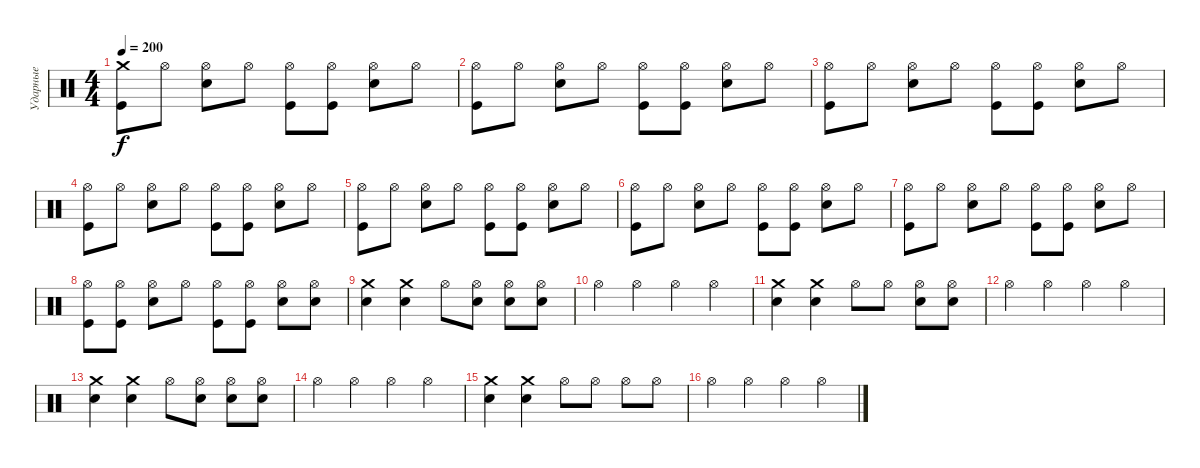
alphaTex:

\track ("Ударные" "Ударные") {instrument percussion}
\staff {score}
\articulation defaults
\ts (4 4)
\tempo 200
\clef neutral
\ks c
("Crash medium (hit)" "Kick (hit)").8{dy f} "Hi-Hat (open)".8 ("Hi-Hat (open)" "Snare (hit) 2").8 "Hi-Hat (open)".8 ("Hi-Hat (open)" "Kick (hit)").8 ("Hi-Hat (open)" "Kick (hit)").8 ("Hi-Hat (open)" "Snare (hit) 2").8 "Hi-Hat (open)".8 |
("Hi-Hat (open)" "Kick (hit)").8 "Hi-Hat (open)".8 ("Hi-Hat (open)" "Snare (hit) 2").8 "Hi-Hat (open)".8 ("Hi-Hat (open)" "Kick (hit)").8 ("Hi-Hat (open)" "Kick (hit)").8 ("Hi-Hat (open)" "Snare (hit) 2").8 "Hi-Hat (open)".8 |
("Hi-Hat (open)" "Kick (hit)").8 "Hi-Hat (open)".8 ("Hi-Hat (open)" "Snare (hit) 2").8 "Hi-Hat (open)".8 ("Hi-Hat (open)" "Kick (hit)").8 ("Hi-Hat (open)" "Kick (hit)").8 ("Hi-Hat (open)" "Snare (hit) 2").8 "Hi-Hat (open)".8 |
("Hi-Hat (open)" "Kick (hit)").8 "Hi-Hat (open)".8 ("Hi-Hat (open)" "Snare (hit) 2").8 "Hi-Hat (open)".8 ("Hi-Hat (open)" "Kick (hit)").8 ("Hi-Hat (open)" "Kick (hit)").8 ("Hi-Hat (open)" "Snare (hit) 2").8 "Hi-Hat (open)".8 |
("Hi-Hat (open)" "Kick (hit)").8 "Hi-Hat (open)".8 ("Hi-Hat (open)" "Snare (hit) 2").8 "Hi-Hat (open)".8 ("Hi-Hat (open)" "Kick (hit)").8 ("Hi-Hat (open)" "Kick (hit)").8 ("Hi-Hat (open)" "Snare (hit) 2").8 "Hi-Hat (open)".8 |
("Hi-Hat (open)" "Kick (hit)").8 "Hi-Hat (open)".8 ("Hi-Hat (open)" "Snare (hit) 2").8 "Hi-Hat (open)".8 ("Hi-Hat (open)" "Kick (hit)").8 ("Hi-Hat (open)" "Kick (hit)").8 ("Hi-Hat (open)" "Snare (hit) 2").8 "Hi-Hat (open)".8 |
("Hi-Hat (open)" "Kick (hit)").8 "Hi-Hat (open)".8 ("Hi-Hat (open)" "Snare (hit) 2").8 "Hi-Hat (open)".8 ("Hi-Hat (open)" "Kick (hit)").8 ("Hi-Hat (open)" "Kick (hit)").8 ("Hi-Hat (open)" "Snare (hit) 2").8 "Hi-Hat (open)".8 |
("Hi-Hat (open)" "Kick (hit)").8 ("Hi-Hat (open)" "Kick (hit)").8 ("Hi-Hat (open)" "Snare (hit) 2").8 "Hi-Hat (open)".8 ("Hi-Hat (open)" "Kick (hit)").8 ("Hi-Hat (open)" "Kick (hit)").8 ("Hi-Hat (open)" "Snare (hit) 2").8 ("Hi-Hat (open)" "Snare (hit) 2").8 |
("Crash medium (hit)" "Snare (hit) 2").4 ("Crash medium (hit)" "Snare (hit) 2").4 "Hi-Hat (open)".8 ("Hi-Hat (open)" "Snare (hit) 2").8 ("Hi-Hat (open)" "Snare (hit) 2").8 ("Hi-Hat (open)" "Snare (hit) 2").8 |
"Hi-Hat (open)".4 "Hi-Hat (open)".4 "Hi-Hat (open)".4 "Hi-Hat (open)".4 |
("Crash medium (hit)" "Snare (hit) 2").4 ("Crash medium (hit)" "Snare (hit) 2").4 "Hi-Hat (open)".8 "Hi-Hat (open)".8 ("Hi-Hat (open)" "Snare (hit) 2").8 ("Hi-Hat (open)" "Snare (hit) 2").8 |
"Hi-Hat (open)".4 "Hi-Hat (open)".4 "Hi-Hat (open)".4 "Hi-Hat (open)".4 |
("Crash medium (hit)" "Snare (hit) 2").4 ("Crash medium (hit)" "Snare (hit) 2").4 "Hi-Hat (open)".8 ("Hi-Hat (open)" "Snare (hit) 2").8 ("Hi-Hat (open)" "Snare (hit) 2").8 ("Hi-Hat (open)" "Snare (hit) 2").8 |
"Hi-Hat (open)".4 "Hi-Hat (open)".4 "Hi-Hat (open)".4 "Hi-Hat (open)".4 |
("Crash medium (hit)" "Snare (hit) 2").4 ("Crash medium (hit)" "Snare (hit) 2").4 "Hi-Hat (open)".8 "Hi-Hat (open)".8 "Hi-Hat (open)".8 "Hi-Hat (open)".8 |
"Hi-Hat (open)".4 "Hi-Hat (open)".4 "Hi-Hat (open)".4 "Hi-Hat (open)".4
